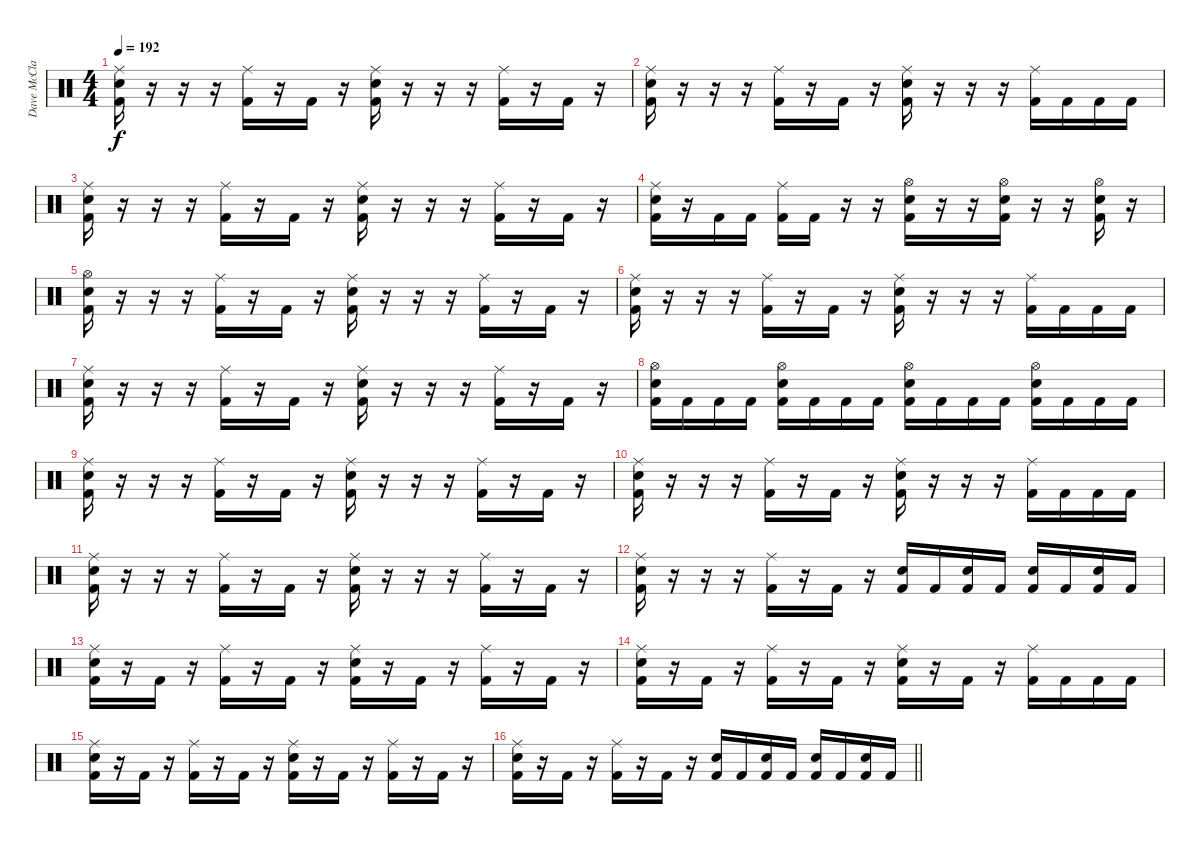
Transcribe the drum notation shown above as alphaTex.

\track ("Dave McClain" "Dave McCla") {instrument percussion}
\staff {score}
\articulation defaults
\ts (4 4)
\tempo 192
\clef neutral
\ks c
("Ride (middle)" "Snare (hit) 2" "Kick (hit) 2").16{dy f} r.16 r.16 r.16 ("Ride (middle)" "Kick (hit) 2").16 r.16 "Kick (hit) 2".16 r.16 ("Ride (middle)" "Snare (hit) 2" "Kick (hit) 2").16 r.16 r.16 r.16 ("Ride (middle)" "Kick (hit) 2").16 r.16 "Kick (hit) 2".16 r.16 |
("Ride (middle)" "Snare (hit) 2" "Kick (hit) 2").16 r.16 r.16 r.16 ("Ride (middle)" "Kick (hit) 2").16 r.16 "Kick (hit) 2".16 r.16 ("Ride (middle)" "Snare (hit) 2" "Kick (hit) 2").16 r.16 r.16 r.16 ("Ride (middle)" "Kick (hit) 2").16 "Kick (hit) 2".16 "Kick (hit) 2".16 "Kick (hit) 2".16 |
("Ride (middle)" "Snare (hit) 2" "Kick (hit) 2").16 r.16 r.16 r.16 ("Ride (middle)" "Kick (hit) 2").16 r.16 "Kick (hit) 2".16 r.16 ("Ride (middle)" "Snare (hit) 2" "Kick (hit) 2").16 r.16 r.16 r.16 ("Ride (middle)" "Kick (hit) 2").16 r.16 "Kick (hit) 2".16 r.16 |
("Ride (middle)" "Snare (hit) 2" "Kick (hit) 2").16 r.16 "Kick (hit) 2".16 "Kick (hit) 2".16 ("Ride (middle)" "Kick (hit) 2").16 "Kick (hit) 2".16 r.16 r.16 ("Hi-Hat (open)" "Snare (hit) 2" "Kick (hit) 2").16 r.16 r.16 ("Hi-Hat (open)" "Snare (hit) 2" "Kick (hit) 2").16 r.16 r.16 ("Hi-Hat (open)" "Snare (hit) 2" "Kick (hit) 2").16 r.16 |
("Hi-Hat (open)" "Snare (hit) 2" "Kick (hit) 2").16 r.16 r.16 r.16 ("Ride (middle)" "Kick (hit) 2").16 r.16 "Kick (hit) 2".16 r.16 ("Ride (middle)" "Snare (hit) 2" "Kick (hit) 2").16 r.16 r.16 r.16 ("Ride (middle)" "Kick (hit) 2").16 r.16 "Kick (hit) 2".16 r.16 |
("Ride (middle)" "Snare (hit) 2" "Kick (hit) 2").16 r.16 r.16 r.16 ("Ride (middle)" "Kick (hit) 2").16 r.16 "Kick (hit) 2".16 r.16 ("Ride (middle)" "Snare (hit) 2" "Kick (hit) 2").16 r.16 r.16 r.16 ("Ride (middle)" "Kick (hit) 2").16 "Kick (hit) 2".16 "Kick (hit) 2".16 "Kick (hit) 2".16 |
("Ride (middle)" "Snare (hit) 2" "Kick (hit) 2").16 r.16 r.16 r.16 ("Ride (middle)" "Kick (hit) 2").16 r.16 "Kick (hit) 2".16 r.16 ("Ride (middle)" "Snare (hit) 2" "Kick (hit) 2").16 r.16 r.16 r.16 ("Ride (middle)" "Kick (hit) 2").16 r.16 "Kick (hit) 2".16 r.16 |
("Hi-Hat (open)" "Snare (hit) 2" "Kick (hit) 2").16 "Kick (hit) 2".16 "Kick (hit) 2".16 "Kick (hit) 2".16 ("Hi-Hat (open)" "Snare (hit) 2" "Kick (hit) 2").16 "Kick (hit) 2".16 "Kick (hit) 2".16 "Kick (hit) 2".16 ("Hi-Hat (open)" "Snare (hit) 2" "Kick (hit) 2").16 "Kick (hit) 2".16 "Kick (hit) 2".16 "Kick (hit) 2".16 ("Hi-Hat (open)" "Snare (hit) 2" "Kick (hit) 2").16 "Kick (hit) 2".16 "Kick (hit) 2".16 "Kick (hit) 2".16 |
("Ride (middle)" "Snare (hit) 2" "Kick (hit) 2").16 r.16 r.16 r.16 ("Ride (middle)" "Kick (hit) 2").16 r.16 "Kick (hit) 2".16 r.16 ("Ride (middle)" "Snare (hit) 2" "Kick (hit) 2").16 r.16 r.16 r.16 ("Ride (middle)" "Kick (hit) 2").16 r.16 "Kick (hit) 2".16 r.16 |
("Ride (middle)" "Snare (hit) 2" "Kick (hit) 2").16 r.16 r.16 r.16 ("Ride (middle)" "Kick (hit) 2").16 r.16 "Kick (hit) 2".16 r.16 ("Ride (middle)" "Snare (hit) 2" "Kick (hit) 2").16 r.16 r.16 r.16 ("Ride (middle)" "Kick (hit) 2").16 "Kick (hit) 2".16 "Kick (hit) 2".16 "Kick (hit) 2".16 |
("Ride (middle)" "Snare (hit) 2" "Kick (hit) 2").16 r.16 r.16 r.16 ("Ride (middle)" "Kick (hit) 2").16 r.16 "Kick (hit) 2".16 r.16 ("Ride (middle)" "Snare (hit) 2" "Kick (hit) 2").16 r.16 r.16 r.16 ("Ride (middle)" "Kick (hit) 2").16 r.16 "Kick (hit) 2".16 r.16 |
("Ride (middle)" "Snare (hit) 2" "Kick (hit) 2").16 r.16 r.16 r.16 ("Ride (middle)" "Kick (hit) 2").16 r.16 "Kick (hit) 2".16 r.16 ("Snare (hit) 2" "Kick (hit) 2").16 "Kick (hit) 2".16 ("Snare (hit) 2" "Kick (hit) 2").16 "Kick (hit) 2".16 ("Snare (hit) 2" "Kick (hit) 2").16 "Kick (hit) 2".16 ("Snare (hit) 2" "Kick (hit) 2").16 "Kick (hit) 2".16 |
("Ride (middle)" "Snare (hit) 2" "Kick (hit) 2").16 r.16 "Kick (hit) 2".16 r.16 ("Ride (middle)" "Kick (hit) 2").16 r.16 "Kick (hit) 2".16 r.16 ("Ride (middle)" "Snare (hit) 2" "Kick (hit) 2").16 r.16 "Kick (hit) 2".16 r.16 ("Ride (middle)" "Kick (hit) 2").16 r.16 "Kick (hit) 2".16 r.16 |
("Ride (middle)" "Snare (hit) 2" "Kick (hit) 2").16 r.16 "Kick (hit) 2".16 r.16 ("Ride (middle)" "Kick (hit) 2").16 r.16 "Kick (hit) 2".16 r.16 ("Ride (middle)" "Snare (hit) 2" "Kick (hit) 2").16 r.16 "Kick (hit) 2".16 r.16 ("Ride (middle)" "Kick (hit) 2").16 "Kick (hit) 2".16 "Kick (hit) 2".16 "Kick (hit) 2".16 |
("Ride (middle)" "Snare (hit) 2" "Kick (hit) 2").16 r.16 "Kick (hit) 2".16 r.16 ("Ride (middle)" "Kick (hit) 2").16 r.16 "Kick (hit) 2".16 r.16 ("Ride (middle)" "Snare (hit) 2" "Kick (hit) 2").16 r.16 "Kick (hit) 2".16 r.16 ("Ride (middle)" "Kick (hit) 2").16 r.16 "Kick (hit) 2".16 r.16 |
\barLineRight lightlight
("Ride (middle)" "Snare (hit) 2" "Kick (hit) 2").16 r.16 "Kick (hit) 2".16 r.16 ("Ride (middle)" "Kick (hit) 2").16 r.16 "Kick (hit) 2".16 r.16 ("Snare (hit) 2" "Kick (hit) 2").16 "Kick (hit) 2".16 ("Snare (hit) 2" "Kick (hit) 2").16 "Kick (hit) 2".16 ("Snare (hit) 2" "Kick (hit) 2").16 "Kick (hit) 2".16 ("Snare (hit) 2" "Kick (hit) 2").16 "Kick (hit) 2".16
